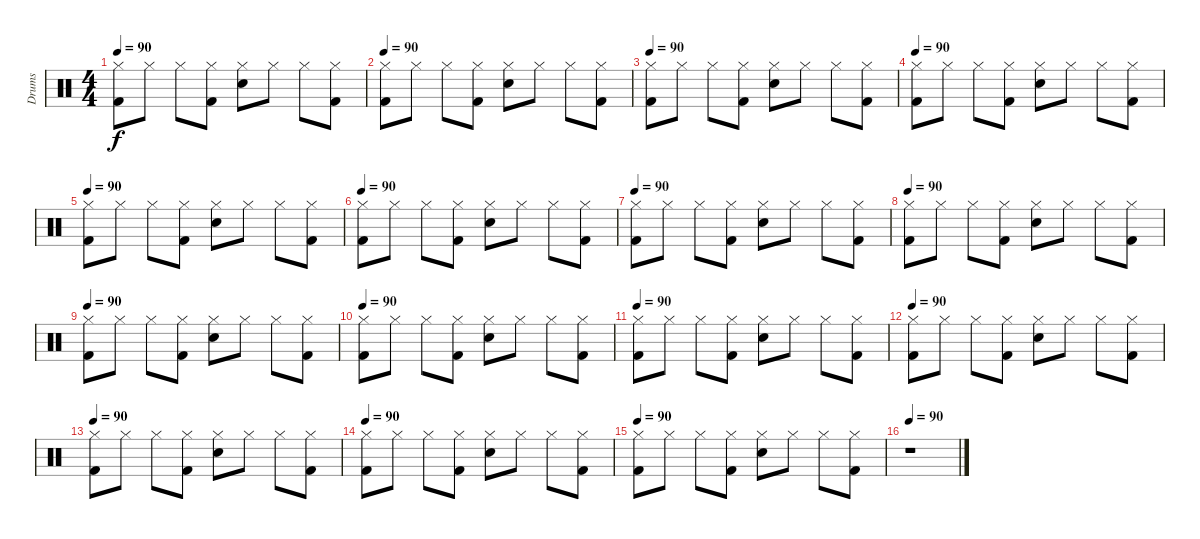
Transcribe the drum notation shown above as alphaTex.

\track ("Drums" "Drums") {instrument percussion}
\staff {score}
\articulation defaults
\ts (4 4)
\tempo 90
\clef neutral
\ks c
("Hi-Hat (closed)" "Kick (hit) 2").8{dy f} "Hi-Hat (closed)".8 "Hi-Hat (closed)".8 ("Hi-Hat (closed)" "Kick (hit) 2").8 ("Hi-Hat (closed)" "Electric Snare (hit)").8 "Hi-Hat (closed)".8 "Hi-Hat (closed)".8 ("Hi-Hat (closed)" "Kick (hit) 2").8 |
\tempo 90
("Hi-Hat (closed)" "Kick (hit) 2").8 "Hi-Hat (closed)".8 "Hi-Hat (closed)".8 ("Hi-Hat (closed)" "Kick (hit) 2").8 ("Hi-Hat (closed)" "Electric Snare (hit)").8 "Hi-Hat (closed)".8 "Hi-Hat (closed)".8 ("Hi-Hat (closed)" "Kick (hit) 2").8 |
\tempo 90
("Hi-Hat (closed)" "Kick (hit) 2").8 "Hi-Hat (closed)".8 "Hi-Hat (closed)".8 ("Hi-Hat (closed)" "Kick (hit) 2").8 ("Hi-Hat (closed)" "Electric Snare (hit)").8 "Hi-Hat (closed)".8 "Hi-Hat (closed)".8 ("Hi-Hat (closed)" "Kick (hit) 2").8 |
\tempo 90
("Hi-Hat (closed)" "Kick (hit) 2").8 "Hi-Hat (closed)".8 "Hi-Hat (closed)".8 ("Hi-Hat (closed)" "Kick (hit) 2").8 ("Hi-Hat (closed)" "Electric Snare (hit)").8 "Hi-Hat (closed)".8 "Hi-Hat (closed)".8 ("Hi-Hat (closed)" "Kick (hit) 2").8 |
\tempo 90
("Hi-Hat (closed)" "Kick (hit) 2").8 "Hi-Hat (closed)".8 "Hi-Hat (closed)".8 ("Hi-Hat (closed)" "Kick (hit) 2").8 ("Hi-Hat (closed)" "Electric Snare (hit)").8 "Hi-Hat (closed)".8 "Hi-Hat (closed)".8 ("Hi-Hat (closed)" "Kick (hit) 2").8 |
\tempo 90
("Hi-Hat (closed)" "Kick (hit) 2").8 "Hi-Hat (closed)".8 "Hi-Hat (closed)".8 ("Hi-Hat (closed)" "Kick (hit) 2").8 ("Hi-Hat (closed)" "Electric Snare (hit)").8 "Hi-Hat (closed)".8 "Hi-Hat (closed)".8 ("Hi-Hat (closed)" "Kick (hit) 2").8 |
\tempo 90
("Hi-Hat (closed)" "Kick (hit) 2").8 "Hi-Hat (closed)".8 "Hi-Hat (closed)".8 ("Hi-Hat (closed)" "Kick (hit) 2").8 ("Hi-Hat (closed)" "Electric Snare (hit)").8 "Hi-Hat (closed)".8 "Hi-Hat (closed)".8 ("Hi-Hat (closed)" "Kick (hit) 2").8 |
\tempo 90
("Hi-Hat (closed)" "Kick (hit) 2").8 "Hi-Hat (closed)".8 "Hi-Hat (closed)".8 ("Hi-Hat (closed)" "Kick (hit) 2").8 ("Hi-Hat (closed)" "Electric Snare (hit)").8 "Hi-Hat (closed)".8 "Hi-Hat (closed)".8 ("Hi-Hat (closed)" "Kick (hit) 2").8 |
\tempo 90
("Hi-Hat (closed)" "Kick (hit) 2").8 "Hi-Hat (closed)".8 "Hi-Hat (closed)".8 ("Hi-Hat (closed)" "Kick (hit) 2").8 ("Hi-Hat (closed)" "Electric Snare (hit)").8 "Hi-Hat (closed)".8 "Hi-Hat (closed)".8 ("Hi-Hat (closed)" "Kick (hit) 2").8 |
\tempo 90
("Hi-Hat (closed)" "Kick (hit) 2").8 "Hi-Hat (closed)".8 "Hi-Hat (closed)".8 ("Hi-Hat (closed)" "Kick (hit) 2").8 ("Hi-Hat (closed)" "Electric Snare (hit)").8 "Hi-Hat (closed)".8 "Hi-Hat (closed)".8 ("Hi-Hat (closed)" "Kick (hit) 2").8 |
\tempo 90
("Hi-Hat (closed)" "Kick (hit) 2").8 "Hi-Hat (closed)".8 "Hi-Hat (closed)".8 ("Hi-Hat (closed)" "Kick (hit) 2").8 ("Hi-Hat (closed)" "Electric Snare (hit)").8 "Hi-Hat (closed)".8 "Hi-Hat (closed)".8 ("Hi-Hat (closed)" "Kick (hit) 2").8 |
\tempo 90
("Hi-Hat (closed)" "Kick (hit) 2").8 "Hi-Hat (closed)".8 "Hi-Hat (closed)".8 ("Hi-Hat (closed)" "Kick (hit) 2").8 ("Hi-Hat (closed)" "Electric Snare (hit)").8 "Hi-Hat (closed)".8 "Hi-Hat (closed)".8 ("Hi-Hat (closed)" "Kick (hit) 2").8 |
\tempo 90
("Hi-Hat (closed)" "Kick (hit) 2").8 "Hi-Hat (closed)".8 "Hi-Hat (closed)".8 ("Hi-Hat (closed)" "Kick (hit) 2").8 ("Hi-Hat (closed)" "Electric Snare (hit)").8 "Hi-Hat (closed)".8 "Hi-Hat (closed)".8 ("Hi-Hat (closed)" "Kick (hit) 2").8 |
\tempo 90
("Hi-Hat (closed)" "Kick (hit) 2").8 "Hi-Hat (closed)".8 "Hi-Hat (closed)".8 ("Hi-Hat (closed)" "Kick (hit) 2").8 ("Hi-Hat (closed)" "Electric Snare (hit)").8 "Hi-Hat (closed)".8 "Hi-Hat (closed)".8 ("Hi-Hat (closed)" "Kick (hit) 2").8 |
\tempo 90
("Hi-Hat (closed)" "Kick (hit) 2").8 "Hi-Hat (closed)".8 "Hi-Hat (closed)".8 ("Hi-Hat (closed)" "Kick (hit) 2").8 ("Hi-Hat (closed)" "Electric Snare (hit)").8 "Hi-Hat (closed)".8 "Hi-Hat (closed)".8 ("Hi-Hat (closed)" "Kick (hit) 2").8 |
\tempo 90
r.1
